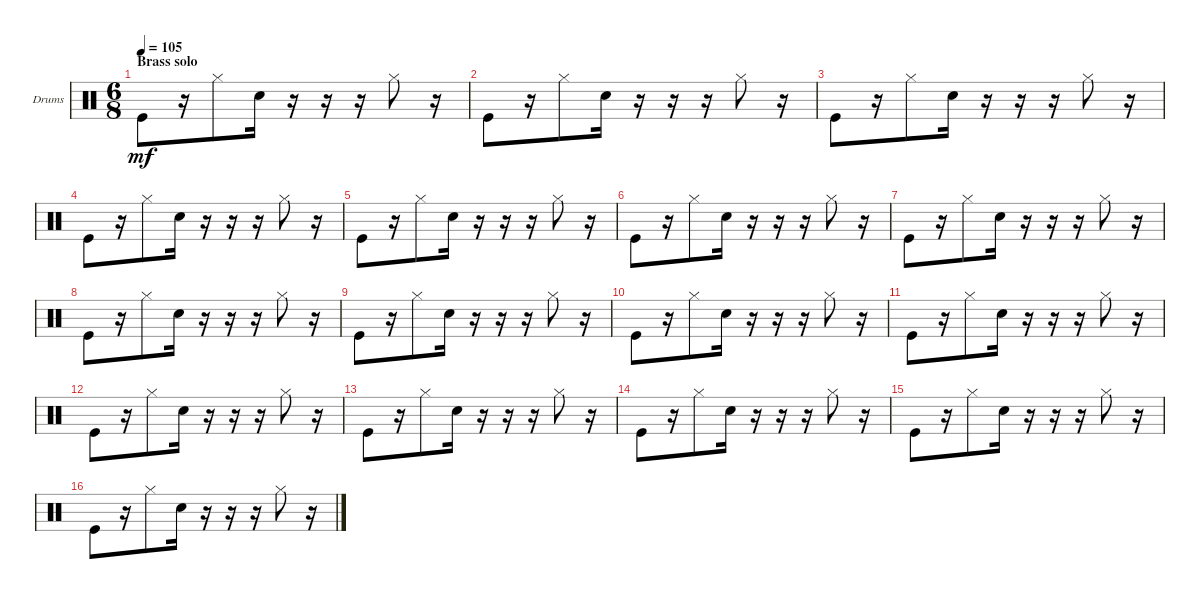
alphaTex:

\defaultSystemsLayout 4
\bracketExtendMode nobrackets
\firstSystemTrackNameOrientation horizontal
\otherSystemsTrackNameOrientation horizontal
\track ("Drumkit" "Drums") {instrument percussion}
\staff {score}
\articulation defaults
\ts (6 8)
\section ("" "Brass solo")
\tempo 105
\clef neutral
\ks c "Kick (hit)".8{dy mf}
r.16 "Hi-Hat (closed)".8 "Snare (hit) 2".16 r.16 r.16 r.16 "Hi-Hat (closed)".8 r.16 |
"Kick (hit)".8 r.16 "Hi-Hat (closed)".8 "Snare (hit) 2".16 r.16 r.16 r.16 "Hi-Hat (closed)".8 r.16 |
"Kick (hit)".8 r.16 "Hi-Hat (closed)".8 "Snare (hit) 2".16 r.16 r.16 r.16 "Hi-Hat (closed)".8 r.16 |
"Kick (hit)".8 r.16 "Hi-Hat (closed)".8 "Snare (hit) 2".16 r.16 r.16 r.16 "Hi-Hat (closed)".8 r.16 |
"Kick (hit)".8 r.16 "Hi-Hat (closed)".8 "Snare (hit) 2".16 r.16 r.16 r.16 "Hi-Hat (closed)".8 r.16 |
"Kick (hit)".8 r.16 "Hi-Hat (closed)".8 "Snare (hit) 2".16 r.16 r.16 r.16 "Hi-Hat (closed)".8 r.16 |
"Kick (hit)".8 r.16 "Hi-Hat (closed)".8 "Snare (hit) 2".16 r.16 r.16 r.16 "Hi-Hat (closed)".8 r.16 |
"Kick (hit)".8 r.16 "Hi-Hat (closed)".8 "Snare (hit) 2".16 r.16 r.16 r.16 "Hi-Hat (closed)".8 r.16 |
"Kick (hit)".8 r.16 "Hi-Hat (closed)".8 "Snare (hit) 2".16 r.16 r.16 r.16 "Hi-Hat (closed)".8 r.16 |
"Kick (hit)".8 r.16 "Hi-Hat (closed)".8 "Snare (hit) 2".16 r.16 r.16 r.16 "Hi-Hat (closed)".8 r.16 |
"Kick (hit)".8 r.16 "Hi-Hat (closed)".8 "Snare (hit) 2".16 r.16 r.16 r.16 "Hi-Hat (closed)".8 r.16 |
"Kick (hit)".8 r.16 "Hi-Hat (closed)".8 "Snare (hit) 2".16 r.16 r.16 r.16 "Hi-Hat (closed)".8 r.16 |
"Kick (hit)".8 r.16 "Hi-Hat (closed)".8 "Snare (hit) 2".16 r.16 r.16 r.16 "Hi-Hat (closed)".8 r.16 |
"Kick (hit)".8 r.16 "Hi-Hat (closed)".8 "Snare (hit) 2".16 r.16 r.16 r.16 "Hi-Hat (closed)".8 r.16 |
"Kick (hit)".8 r.16 "Hi-Hat (closed)".8 "Snare (hit) 2".16 r.16 r.16 r.16 "Hi-Hat (closed)".8 r.16 |
"Kick (hit)".8 r.16 "Hi-Hat (closed)".8 "Snare (hit) 2".16 r.16 r.16 r.16 "Hi-Hat (closed)".8 r.16
